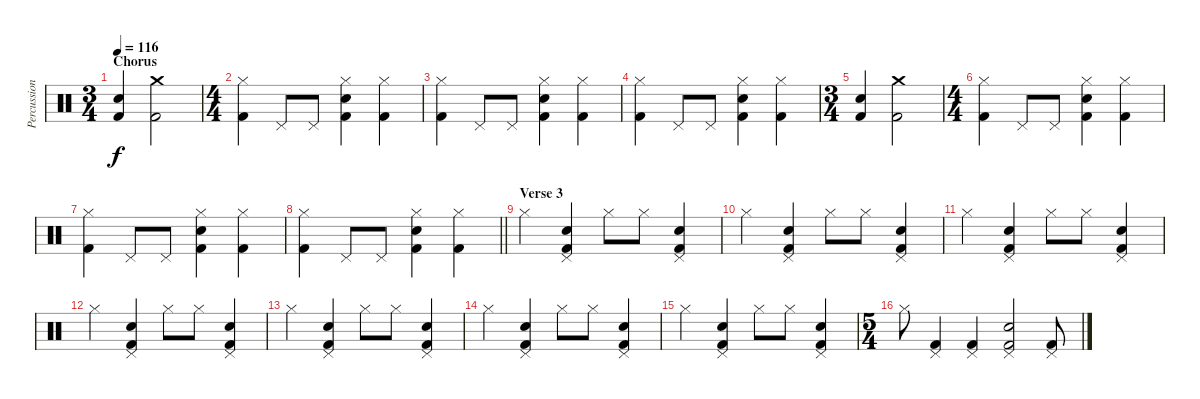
\track ("Percussion" "Percussion") {instrument percussion}
\staff {score}
\articulation defaults
\ts (3 4)
\section ("" "Chorus")
\tempo 116
\clef neutral
\ks c
("Electric Snare (hit)" "Kick (hit) 2").4{dy f} ("Crash medium (hit)" "Kick (hit) 2").2 |
\ts (4 4)
("Hi-Hat (closed)" "Kick (hit) 2").4 "Pedal Hi-Hat (hit)".8 "Pedal Hi-Hat (hit)".8 ("Hi-Hat (closed)" "Electric Snare (hit)" "Kick (hit) 2").4 ("Hi-Hat (closed)" "Kick (hit) 2").4 |
("Hi-Hat (closed)" "Kick (hit) 2").4 "Pedal Hi-Hat (hit)".8 "Pedal Hi-Hat (hit)".8 ("Hi-Hat (closed)" "Electric Snare (hit)" "Kick (hit) 2").4 ("Hi-Hat (closed)" "Kick (hit) 2").4 |
("Hi-Hat (closed)" "Kick (hit) 2").4 "Pedal Hi-Hat (hit)".8 "Pedal Hi-Hat (hit)".8 ("Hi-Hat (closed)" "Electric Snare (hit)" "Kick (hit) 2").4 ("Hi-Hat (closed)" "Kick (hit) 2").4 |
\ts (3 4)
("Electric Snare (hit)" "Kick (hit) 2").4 ("Crash medium (hit)" "Kick (hit) 2").2 |
\ts (4 4)
("Hi-Hat (closed)" "Kick (hit) 2").4 "Pedal Hi-Hat (hit)".8 "Pedal Hi-Hat (hit)".8 ("Hi-Hat (closed)" "Electric Snare (hit)" "Kick (hit) 2").4 ("Hi-Hat (closed)" "Kick (hit) 2").4 |
("Hi-Hat (closed)" "Kick (hit) 2").4 "Pedal Hi-Hat (hit)".8 "Pedal Hi-Hat (hit)".8 ("Hi-Hat (closed)" "Electric Snare (hit)" "Kick (hit) 2").4 ("Hi-Hat (closed)" "Kick (hit) 2").4 |
\barLineRight lightlight
("Hi-Hat (closed)" "Kick (hit) 2").4 "Pedal Hi-Hat (hit)".8 "Pedal Hi-Hat (hit)".8 ("Hi-Hat (closed)" "Electric Snare (hit)" "Kick (hit) 2").4 ("Hi-Hat (closed)" "Kick (hit) 2").4 |
\section ("" "Verse 3")
"Hi-Hat (closed)".4 ("Pedal Hi-Hat (hit)" "Electric Snare (hit)" "Kick (hit) 2").4 "Hi-Hat (closed)".8 "Hi-Hat (closed)".8 ("Pedal Hi-Hat (hit)" "Electric Snare (hit)" "Kick (hit) 2").4 |
"Hi-Hat (closed)".4 ("Pedal Hi-Hat (hit)" "Electric Snare (hit)" "Kick (hit) 2").4 "Hi-Hat (closed)".8 "Hi-Hat (closed)".8 ("Pedal Hi-Hat (hit)" "Electric Snare (hit)" "Kick (hit) 2").4 |
"Hi-Hat (closed)".4 ("Pedal Hi-Hat (hit)" "Electric Snare (hit)" "Kick (hit) 2").4 "Hi-Hat (closed)".8 "Hi-Hat (closed)".8 ("Pedal Hi-Hat (hit)" "Electric Snare (hit)" "Kick (hit) 2").4 |
"Hi-Hat (closed)".4 ("Pedal Hi-Hat (hit)" "Electric Snare (hit)" "Kick (hit) 2").4 "Hi-Hat (closed)".8 "Hi-Hat (closed)".8 ("Pedal Hi-Hat (hit)" "Electric Snare (hit)" "Kick (hit) 2").4 |
"Hi-Hat (closed)".4 ("Pedal Hi-Hat (hit)" "Electric Snare (hit)" "Kick (hit) 2").4 "Hi-Hat (closed)".8 "Hi-Hat (closed)".8 ("Pedal Hi-Hat (hit)" "Electric Snare (hit)" "Kick (hit) 2").4 |
"Hi-Hat (closed)".4 ("Pedal Hi-Hat (hit)" "Electric Snare (hit)" "Kick (hit) 2").4 "Hi-Hat (closed)".8 "Hi-Hat (closed)".8 ("Pedal Hi-Hat (hit)" "Electric Snare (hit)" "Kick (hit) 2").4 |
"Hi-Hat (closed)".4 ("Pedal Hi-Hat (hit)" "Electric Snare (hit)" "Kick (hit) 2").4 "Hi-Hat (closed)".8 "Hi-Hat (closed)".8 ("Pedal Hi-Hat (hit)" "Electric Snare (hit)" "Kick (hit) 2").4 |
\ts (5 4)
"Hi-Hat (closed)".8 ("Pedal Hi-Hat (hit)" "Kick (hit) 2").4 ("Pedal Hi-Hat (hit)" "Kick (hit) 2").4 ("Pedal Hi-Hat (hit)" "Electric Snare (hit)" "Kick (hit) 2").2 ("Pedal Hi-Hat (hit)" "Kick (hit) 2").8
